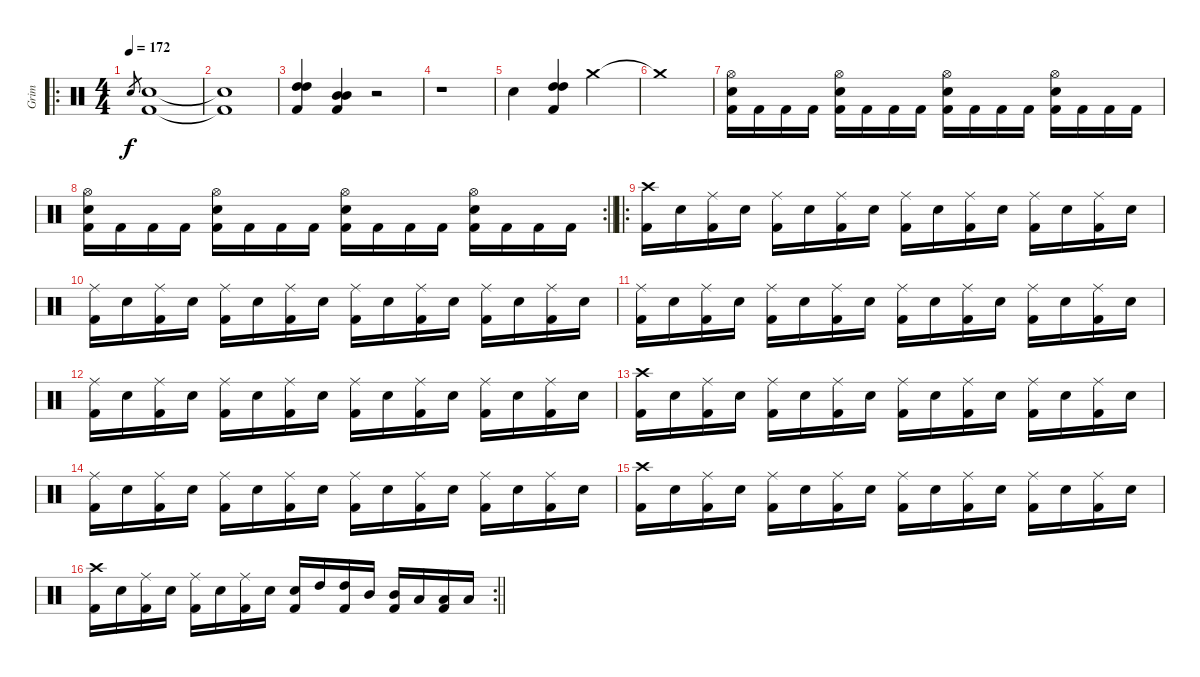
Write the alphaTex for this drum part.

\track ("Grim" "Grim") {instrument percussion}
\staff {score}
\articulation defaults
\ro
\ts (4 4)
\tempo 172
\clef neutral
\ks c "Electric Snare (hit)".8{gr dy f}
("Electric Snare (hit)" "Kick (hit) 2").1 |
("Electric Snare (hit)"{t} "Kick (hit) 2"{t}).1 |
("High Tom (hit)" "High Tom (hit)" "Kick (hit) 2").4 ("Mid Tom (hit)" "Mid Tom (hit)" "Kick (hit) 2").4 r.2 |
r.1 |
"Electric Snare (hit)".4 ("High Tom (hit)" "High Tom (hit)" "Kick (hit) 2").4 "Crash medium (hit)".2 |
"Crash medium (hit)"{t}.1 |
("Hi-Hat (open)" "Electric Snare (hit)" "Kick (hit) 2").16 "Kick (hit) 2".16 "Kick (hit) 2".16 "Kick (hit) 2".16 ("Hi-Hat (open)" "Electric Snare (hit)" "Kick (hit) 2").16 "Kick (hit) 2".16 "Kick (hit) 2".16 "Kick (hit) 2".16 ("Hi-Hat (open)" "Electric Snare (hit)" "Kick (hit) 2").16 "Kick (hit) 2".16 "Kick (hit) 2".16 "Kick (hit) 2".16 ("Hi-Hat (open)" "Electric Snare (hit)" "Kick (hit) 2").16 "Kick (hit) 2".16 "Kick (hit) 2".16 "Kick (hit) 2".16 |
\rc 2
\barLineRight lightlight
("Hi-Hat (open)" "Electric Snare (hit)" "Kick (hit) 2").16 "Kick (hit) 2".16 "Kick (hit) 2".16 "Kick (hit) 2".16 ("Hi-Hat (open)" "Electric Snare (hit)" "Kick (hit) 2").16 "Kick (hit) 2".16 "Kick (hit) 2".16 "Kick (hit) 2".16 ("Hi-Hat (open)" "Electric Snare (hit)" "Kick (hit) 2").16 "Kick (hit) 2".16 "Kick (hit) 2".16 "Kick (hit) 2".16 ("Hi-Hat (open)" "Electric Snare (hit)" "Kick (hit) 2").16 "Kick (hit) 2".16 "Kick (hit) 2".16 "Kick (hit) 2".16 |
\ro
("Crash high (hit)" "Kick (hit) 2").16 "Electric Snare (hit)".16 ("Ride (middle)" "Kick (hit) 2").16 "Electric Snare (hit)".16 ("Ride (middle)" "Kick (hit) 2").16 "Electric Snare (hit)".16 ("Ride (middle)" "Kick (hit) 2").16 "Electric Snare (hit)".16 ("Ride (middle)" "Kick (hit) 2").16 "Electric Snare (hit)".16 ("Ride (middle)" "Kick (hit) 2").16 "Electric Snare (hit)".16 ("Ride (middle)" "Kick (hit) 2").16 "Electric Snare (hit)".16 ("Ride (middle)" "Kick (hit) 2").16 "Electric Snare (hit)".16 |
("Ride (middle)" "Kick (hit) 2").16 "Electric Snare (hit)".16 ("Ride (middle)" "Kick (hit) 2").16 "Electric Snare (hit)".16 ("Ride (middle)" "Kick (hit) 2").16 "Electric Snare (hit)".16 ("Ride (middle)" "Kick (hit) 2").16 "Electric Snare (hit)".16 ("Ride (middle)" "Kick (hit) 2").16 "Electric Snare (hit)".16 ("Ride (middle)" "Kick (hit) 2").16 "Electric Snare (hit)".16 ("Ride (middle)" "Kick (hit) 2").16 "Electric Snare (hit)".16 ("Ride (middle)" "Kick (hit) 2").16 "Electric Snare (hit)".16 |
("Ride (middle)" "Kick (hit) 2").16 "Electric Snare (hit)".16 ("Ride (middle)" "Kick (hit) 2").16 "Electric Snare (hit)".16 ("Ride (middle)" "Kick (hit) 2").16 "Electric Snare (hit)".16 ("Ride (middle)" "Kick (hit) 2").16 "Electric Snare (hit)".16 ("Ride (middle)" "Kick (hit) 2").16 "Electric Snare (hit)".16 ("Ride (middle)" "Kick (hit) 2").16 "Electric Snare (hit)".16 ("Ride (middle)" "Kick (hit) 2").16 "Electric Snare (hit)".16 ("Ride (middle)" "Kick (hit) 2").16 "Electric Snare (hit)".16 |
("Ride (middle)" "Kick (hit) 2").16 "Electric Snare (hit)".16 ("Ride (middle)" "Kick (hit) 2").16 "Electric Snare (hit)".16 ("Ride (middle)" "Kick (hit) 2").16 "Electric Snare (hit)".16 ("Ride (middle)" "Kick (hit) 2").16 "Electric Snare (hit)".16 ("Ride (middle)" "Kick (hit) 2").16 "Electric Snare (hit)".16 ("Ride (middle)" "Kick (hit) 2").16 "Electric Snare (hit)".16 ("Ride (middle)" "Kick (hit) 2").16 "Electric Snare (hit)".16 ("Ride (middle)" "Kick (hit) 2").16 "Electric Snare (hit)".16 |
("Crash high (hit)" "Kick (hit) 2").16 "Electric Snare (hit)".16 ("Ride (middle)" "Kick (hit) 2").16 "Electric Snare (hit)".16 ("Ride (middle)" "Kick (hit) 2").16 "Electric Snare (hit)".16 ("Ride (middle)" "Kick (hit) 2").16 "Electric Snare (hit)".16 ("Ride (middle)" "Kick (hit) 2").16 "Electric Snare (hit)".16 ("Ride (middle)" "Kick (hit) 2").16 "Electric Snare (hit)".16 ("Ride (middle)" "Kick (hit) 2").16 "Electric Snare (hit)".16 ("Ride (middle)" "Kick (hit) 2").16 "Electric Snare (hit)".16 |
("Ride (middle)" "Kick (hit) 2").16 "Electric Snare (hit)".16 ("Ride (middle)" "Kick (hit) 2").16 "Electric Snare (hit)".16 ("Ride (middle)" "Kick (hit) 2").16 "Electric Snare (hit)".16 ("Ride (middle)" "Kick (hit) 2").16 "Electric Snare (hit)".16 ("Ride (middle)" "Kick (hit) 2").16 "Electric Snare (hit)".16 ("Ride (middle)" "Kick (hit) 2").16 "Electric Snare (hit)".16 ("Ride (middle)" "Kick (hit) 2").16 "Electric Snare (hit)".16 ("Ride (middle)" "Kick (hit) 2").16 "Electric Snare (hit)".16 |
("Crash high (hit)" "Kick (hit) 2").16 "Electric Snare (hit)".16 ("Ride (middle)" "Kick (hit) 2").16 "Electric Snare (hit)".16 ("Ride (middle)" "Kick (hit) 2").16 "Electric Snare (hit)".16 ("Ride (middle)" "Kick (hit) 2").16 "Electric Snare (hit)".16 ("Ride (middle)" "Kick (hit) 2").16 "Electric Snare (hit)".16 ("Ride (middle)" "Kick (hit) 2").16 "Electric Snare (hit)".16 ("Ride (middle)" "Kick (hit) 2").16 "Electric Snare (hit)".16 ("Ride (middle)" "Kick (hit) 2").16 "Electric Snare (hit)".16 |
\rc 2
\barLineRight lightlight
("Crash high (hit)" "Kick (hit) 2").16 "Electric Snare (hit)".16 ("Ride (middle)" "Kick (hit) 2").16 "Electric Snare (hit)".16 ("Ride (middle)" "Kick (hit) 2").16 "Electric Snare (hit)".16 ("Ride (middle)" "Kick (hit) 2").16 "Electric Snare (hit)".16 ("Electric Snare (hit)" "Kick (hit) 2").16 "High Tom (hit)".16 ("High Tom (hit)" "Kick (hit) 2").16 "Mid Tom (hit)".16 ("Mid Tom (hit)" "Kick (hit) 2").16 "Low Tom (hit)".16 ("Low Tom (hit)" "Kick (hit) 2").16 "Low Tom (hit)".16
